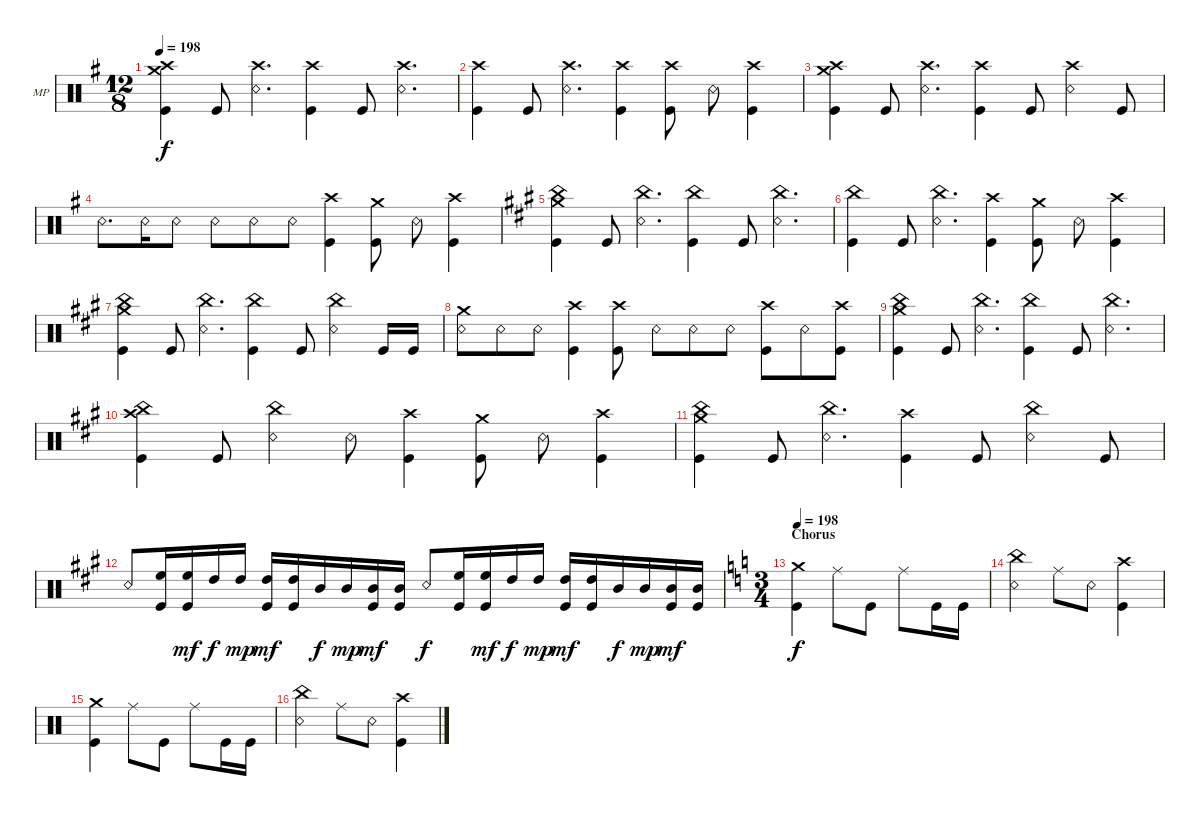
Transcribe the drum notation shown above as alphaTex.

\defaultSystemsLayout 4
\bracketExtendMode groupsimilarinstruments
\firstSystemTrackNameOrientation horizontal
\otherSystemsTrackNameOrientation horizontal
\track ("Mike Portnoy" "MP") {instrument percussion}
\staff {score}
\articulation defaults
\ts (12 8)
\tempo 198
\clef neutral
\ks g
("Crash medium (hit)" "Crash high (hit)" "Kick (hit)").4{dy f} "Kick (hit)".8 ("Crash high (hit)" "Snare (rim shot)").4{d} ("Crash high (hit)" "Kick (hit)").4 "Kick (hit)".8 ("Crash high (hit)" "Snare (rim shot)").4{d} |
("Crash high (hit)" "Kick (hit)").4 "Kick (hit)".8 ("Crash high (hit)" "Snare (rim shot)").4{d} ("Crash high (hit)" "Kick (hit)").4 ("Crash high (hit)" "Kick (hit)").8 "Snare (rim shot)".8 ("Crash high (hit)" "Kick (hit)").4 |
("Crash medium (hit)" "Crash high (hit)" "Kick (hit)").4 "Kick (hit)".8 ("Crash high (hit)" "Snare (rim shot)").4{d} ("Crash high (hit)" "Kick (hit)").4 "Kick (hit)".8 ("Crash high (hit)" "Snare (rim shot)").4 "Kick (hit)".8 |
"Snare (rim shot)".8{d} "Snare (rim shot)".16 "Snare (rim shot)".8 "Snare (rim shot)".8 "Snare (rim shot)".8 "Snare (rim shot)".8 ("Crash high (hit)" "Kick (hit)").4 ("Crash medium (hit)" "Kick (hit)").8 "Snare (rim shot)".8 ("Crash high (hit)" "Kick (hit)").4 |
\ks a
("Crash medium (hit)" "China (hit)" "Kick (hit)").4 "Kick (hit)".8 ("China (hit)" "Snare (rim shot)").4{d} ("China (hit)" "Kick (hit)").4 "Kick (hit)".8 ("China (hit)" "Snare (rim shot)").4{d} |
("China (hit)" "Kick (hit)").4 "Kick (hit)".8 ("China (hit)" "Snare (rim shot)").4{d} ("Crash high (hit)" "Kick (hit)").4 ("Crash medium (hit)" "Kick (hit)").8 "Snare (rim shot)".8 ("Crash high (hit)" "Kick (hit)").4 |
("Crash medium (hit)" "China (hit)" "Kick (hit)").4 "Kick (hit)".8 ("China (hit)" "Snare (rim shot)").4{d} ("China (hit)" "Kick (hit)").4 "Kick (hit)".8 ("China (hit)" "Snare (rim shot)").4 "Kick (hit)".16 "Kick (hit)".16 |
("Crash medium (hit)" "Snare (rim shot)").8 "Snare (rim shot)".8 "Snare (rim shot)".8 ("Crash high (hit)" "Kick (hit)").4 ("Crash high (hit)" "Kick (hit)").8 "Snare (rim shot)".8 "Snare (rim shot)".8 "Snare (rim shot)".8 ("Crash high (hit)" "Kick (hit)").8 "Snare (rim shot)".8 ("Crash high (hit)" "Kick (hit)").8 |
("Crash medium (hit)" "China (hit)" "Kick (hit)").4 "Kick (hit)".8 ("China (hit)" "Snare (rim shot)").4{d} ("China (hit)" "Kick (hit)").4 "Kick (hit)".8 ("China (hit)" "Snare (rim shot)").4{d} |
("Crash high (hit)" "China (hit)" "Kick (hit)").4 "Kick (hit)".8 ("China (hit)" "Snare (rim shot)").4 "Snare (rim shot)".8 ("Crash high (hit)" "Kick (hit)").4 ("Crash medium (hit)" "Kick (hit)").8 "Snare (rim shot)".8 ("Crash high (hit)" "Kick (hit)").4 |
("Crash medium (hit)" "China (hit)" "Kick (hit)").4 "Kick (hit)".8 ("China (hit)" "Snare (rim shot)").4{d} ("Crash high (hit)" "Kick (hit)").4 "Kick (hit)".8 ("China (hit)" "Snare (rim shot)").4 "Kick (hit)".8 |
"Snare (rim shot)".8 ("High Floor Tom (hit)" "Kick (hit)").16 ("High Floor Tom (hit)" "Kick (hit)").16{dy mf} "High Tom (hit)".16{dy f} "High Tom (hit)".16{dy mp} ("High Tom (hit)" "Kick (hit)").16{dy mf} ("High Tom (hit)" "Kick (hit)").16 "Mid Tom (hit)".16{dy f} "Mid Tom (hit)".16{dy mp} ("Mid Tom (hit)" "Kick (hit)").16{dy mf} ("Mid Tom (hit)" "Kick (hit)").16 "Snare (rim shot)".8{dy f} ("High Floor Tom (hit)" "Kick (hit)").16 ("High Floor Tom (hit)" "Kick (hit)").16{dy mf} "High Tom (hit)".16{dy f} "High Tom (hit)".16{dy mp} ("High Tom (hit)" "Kick (hit)").16{dy mf} ("High Tom (hit)" "Kick (hit)").16 "Mid Tom (hit)".16{dy f} "Mid Tom (hit)".16{dy mp} ("Mid Tom (hit)" "Kick (hit)").16{dy mf} ("Mid Tom (hit)" "Kick (hit)").16 |
\ts (3 4)
\section ("" "Chorus")
\tempo 198
\ks c
("Crash medium (hit)" "Kick (hit)").4{dy f} "Ride (middle)".8 "Kick (hit)".8 "Ride (middle)".8 "Kick (hit)".16 "Kick (hit)".16 |
("China (hit)" "Snare (rim shot)").4 "Ride (middle)".8 "Snare (rim shot)".8 ("Crash high (hit)" "Kick (hit)").4 |
("Crash medium (hit)" "Kick (hit)").4 "Ride (middle)".8 "Kick (hit)".8 "Ride (middle)".8 "Kick (hit)".16 "Kick (hit)".16 |
("China (hit)" "Snare (rim shot)").4 "Ride (middle)".8 "Snare (rim shot)".8 ("Crash high (hit)" "Kick (hit)").4
